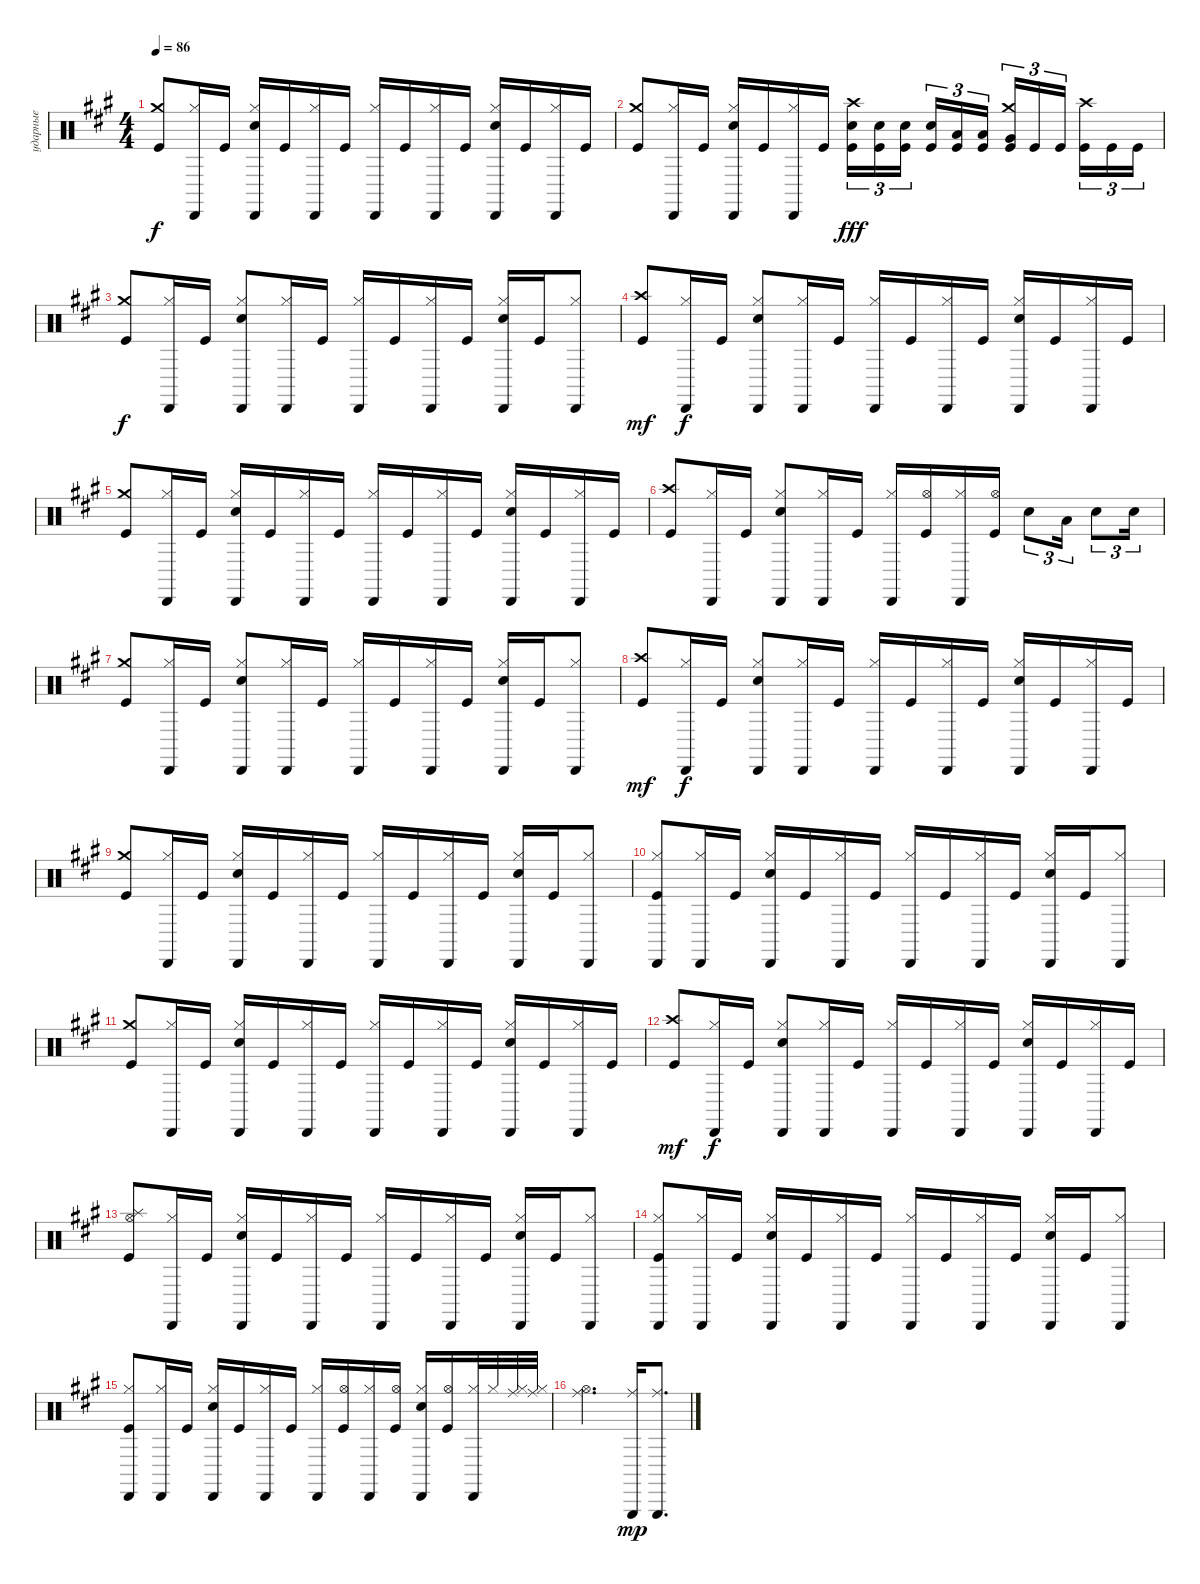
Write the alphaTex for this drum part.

\track ("ударные" "ударные") {instrument percussion}
\staff {score}
\articulation defaults
\ts (4 4)
\tempo 86
\clef neutral
\ks f#minor
("Kick (hit)" "Crash medium (hit)").8{dy f} ("Hi-Hat (closed)" "Cabasa (hit)").16 "Kick (hit)".16 ("Snare (hit) 2" "Hi-Hat (closed)" "Cabasa (hit)").16 "Kick (hit)".16 ("Hi-Hat (closed)" "Cabasa (hit)").16 "Kick (hit)".16 ("Hi-Hat (closed)" "Cabasa (hit)").16 "Kick (hit)".16 ("Hi-Hat (closed)" "Cabasa (hit)").16 "Kick (hit)".16 ("Hi-Hat (closed)" "Snare (hit) 2" "Cabasa (hit)").16 "Kick (hit)".16 ("Hi-Hat (closed)" "Cabasa (hit)").16 "Kick (hit)".16 |
("Kick (hit)" "Crash medium (hit)").8 ("Hi-Hat (closed)" "Cabasa (hit)").16 "Kick (hit)".16 ("Snare (hit) 2" "Hi-Hat (closed)" "Cabasa (hit)").16 "Kick (hit)".16 ("Hi-Hat (closed)" "Cabasa (hit)").16 "Kick (hit)".16 ("Snare (hit) 2" "Kick (hit)" "Crash high (hit)").16{tu (3 2) dy fff} ("Snare (hit) 2" "Kick (hit)").16{tu (3 2)} ("Snare (hit) 2" "Kick (hit)").16{tu (3 2) beam splitsecondary} ("Snare (hit) 2" "Kick (hit)").16{tu (3 2)} ("Low Tom (hit)" "Kick (hit)").16{tu (3 2)} ("Low Tom (hit)" "Kick (hit)").16{tu (3 2)} ("Very Low Tom (hit)" "Crash medium (hit)" "Kick (hit)").16{tu (3 2)} "Kick (hit)".16{tu (3 2)} "Kick (hit)".16{tu (3 2) beam splitsecondary} ("Kick (hit)" "Crash high (hit)").16{tu (3 2)} "Kick (hit)".16{tu (3 2)} "Kick (hit)".16{tu (3 2)} |
("Kick (hit)" "Crash medium (hit)").8{dy f} ("Hi-Hat (closed)" "Cabasa (hit)").16 "Kick (hit)".16 ("Snare (hit) 2" "Hi-Hat (closed)" "Cabasa (hit)").8 ("Hi-Hat (closed)" "Cabasa (hit)").16 "Kick (hit)".16 ("Hi-Hat (closed)" "Cabasa (hit)").16 "Kick (hit)".16 ("Hi-Hat (closed)" "Cabasa (hit)").16 "Kick (hit)".16 ("Hi-Hat (closed)" "Snare (hit) 2" "Cabasa (hit)").16 "Kick (hit)".16 ("Hi-Hat (closed)" "Cabasa (hit)").8 |
("Kick (hit)" "Crash high (hit)").8{dy mf} ("Hi-Hat (closed)" "Cabasa (hit)").16{dy f} "Kick (hit)".16 ("Snare (hit) 2" "Hi-Hat (closed)" "Cabasa (hit)").8 ("Hi-Hat (closed)" "Cabasa (hit)").16 "Kick (hit)".16 ("Hi-Hat (closed)" "Cabasa (hit)").16 "Kick (hit)".16 ("Hi-Hat (closed)" "Cabasa (hit)").16 "Kick (hit)".16 ("Hi-Hat (closed)" "Snare (hit) 2" "Cabasa (hit)").16 "Kick (hit)".16 ("Hi-Hat (closed)" "Cabasa (hit)").16 "Kick (hit)".16 |
("Kick (hit)" "Crash medium (hit)").8 ("Hi-Hat (closed)" "Cabasa (hit)").16 "Kick (hit)".16 ("Snare (hit) 2" "Hi-Hat (closed)" "Cabasa (hit)").16 "Kick (hit)".16 ("Hi-Hat (closed)" "Cabasa (hit)").16 "Kick (hit)".16 ("Hi-Hat (closed)" "Cabasa (hit)").16 "Kick (hit)".16 ("Hi-Hat (closed)" "Cabasa (hit)").16 "Kick (hit)".16 ("Hi-Hat (closed)" "Snare (hit) 2" "Cabasa (hit)").16 "Kick (hit)".16 ("Hi-Hat (closed)" "Cabasa (hit)").16 "Kick (hit)".16 |
("Kick (hit)" "Crash high (hit)").8 ("Hi-Hat (closed)" "Cabasa (hit)").16 "Kick (hit)".16 ("Snare (hit) 2" "Hi-Hat (closed)" "Cabasa (hit)").8 ("Hi-Hat (closed)" "Cabasa (hit)").16 "Kick (hit)".16 ("Hi-Hat (closed)" "Cabasa (hit)").16 ("Kick (hit)" "Hi-Hat (open)").16 ("Hi-Hat (closed)" "Cabasa (hit)").16 ("Kick (hit)" "Hi-Hat (open)").16 "Snare (hit) 2".8{tu (3 2)} "Low Tom (hit)".16{tu (3 2)} "Snare (hit) 2".8{tu (3 2)} "Snare (hit) 2".16{tu (3 2)} |
("Kick (hit)" "Crash medium (hit)").8 ("Hi-Hat (closed)" "Cabasa (hit)").16 "Kick (hit)".16 ("Snare (hit) 2" "Hi-Hat (closed)" "Cabasa (hit)").8 ("Hi-Hat (closed)" "Cabasa (hit)").16 "Kick (hit)".16 ("Hi-Hat (closed)" "Cabasa (hit)").16 "Kick (hit)".16 ("Hi-Hat (closed)" "Cabasa (hit)").16 "Kick (hit)".16 ("Hi-Hat (closed)" "Snare (hit) 2" "Cabasa (hit)").16 "Kick (hit)".16 ("Hi-Hat (closed)" "Cabasa (hit)").8 |
("Kick (hit)" "Crash high (hit)").8{dy mf} ("Hi-Hat (closed)" "Cabasa (hit)").16{dy f} "Kick (hit)".16 ("Snare (hit) 2" "Hi-Hat (closed)" "Cabasa (hit)").8 ("Hi-Hat (closed)" "Cabasa (hit)").16 "Kick (hit)".16 ("Hi-Hat (closed)" "Cabasa (hit)").16 "Kick (hit)".16 ("Hi-Hat (closed)" "Cabasa (hit)").16 "Kick (hit)".16 ("Hi-Hat (closed)" "Snare (hit) 2" "Cabasa (hit)").16 "Kick (hit)".16 ("Hi-Hat (closed)" "Cabasa (hit)").16 "Kick (hit)".16 |
("Kick (hit)" "Crash medium (hit)").8 ("Hi-Hat (closed)" "Cabasa (hit)").16 "Kick (hit)".16 ("Snare (hit) 2" "Hi-Hat (closed)" "Cabasa (hit)").16 "Kick (hit)".16 ("Hi-Hat (closed)" "Cabasa (hit)").16 "Kick (hit)".16 ("Hi-Hat (closed)" "Cabasa (hit)").16 "Kick (hit)".16 ("Hi-Hat (closed)" "Cabasa (hit)").16 "Kick (hit)".16 ("Hi-Hat (closed)" "Snare (hit) 2" "Cabasa (hit)").16 "Kick (hit)".16 ("Hi-Hat (closed)" "Cabasa (hit)").8 |
("Kick (hit)" "Hi-Hat (closed)" "Cabasa (hit)").8 ("Hi-Hat (closed)" "Cabasa (hit)").16 "Kick (hit)".16 ("Snare (hit) 2" "Hi-Hat (closed)" "Cabasa (hit)").16 "Kick (hit)".16 ("Hi-Hat (closed)" "Cabasa (hit)").16 "Kick (hit)".16 ("Hi-Hat (closed)" "Cabasa (hit)").16 "Kick (hit)".16 ("Hi-Hat (closed)" "Cabasa (hit)").16 "Kick (hit)".16 ("Hi-Hat (closed)" "Snare (hit) 2" "Cabasa (hit)").16 "Kick (hit)".16 ("Hi-Hat (closed)" "Cabasa (hit)").8 |
("Kick (hit)" "Crash medium (hit)").8 ("Hi-Hat (closed)" "Cabasa (hit)").16 "Kick (hit)".16 ("Snare (hit) 2" "Hi-Hat (closed)" "Cabasa (hit)").16 "Kick (hit)".16 ("Hi-Hat (closed)" "Cabasa (hit)").16 "Kick (hit)".16 ("Hi-Hat (closed)" "Cabasa (hit)").16 "Kick (hit)".16 ("Hi-Hat (closed)" "Cabasa (hit)").16 "Kick (hit)".16 ("Hi-Hat (closed)" "Snare (hit) 2" "Cabasa (hit)").16 "Kick (hit)".16 ("Hi-Hat (closed)" "Cabasa (hit)").16 "Kick (hit)".16 |
("Kick (hit)" "Crash high (hit)").8{dy mf} ("Hi-Hat (closed)" "Cabasa (hit)").16{dy f} "Kick (hit)".16 ("Snare (hit) 2" "Hi-Hat (closed)" "Cabasa (hit)").8 ("Hi-Hat (closed)" "Cabasa (hit)").16 "Kick (hit)".16 ("Hi-Hat (closed)" "Cabasa (hit)").16 "Kick (hit)".16 ("Hi-Hat (closed)" "Cabasa (hit)").16 "Kick (hit)".16 ("Hi-Hat (closed)" "Snare (hit) 2" "Cabasa (hit)").16 "Kick (hit)".16 ("Hi-Hat (closed)" "Cabasa (hit)").16 "Kick (hit)".16 |
("Kick (hit)" "Hi-Hat (open)" "Splash (hit)").8 ("Hi-Hat (closed)" "Cabasa (hit)").16 "Kick (hit)".16 ("Snare (hit) 2" "Hi-Hat (closed)" "Cabasa (hit)").16 "Kick (hit)".16 ("Hi-Hat (closed)" "Cabasa (hit)").16 "Kick (hit)".16 ("Hi-Hat (closed)" "Cabasa (hit)").16 "Kick (hit)".16 ("Hi-Hat (closed)" "Cabasa (hit)").16 "Kick (hit)".16 ("Hi-Hat (closed)" "Snare (hit) 2" "Cabasa (hit)").16 "Kick (hit)".16 ("Hi-Hat (closed)" "Cabasa (hit)").8 |
("Kick (hit)" "Hi-Hat (closed)" "Cabasa (hit)").8 ("Hi-Hat (closed)" "Cabasa (hit)").16 "Kick (hit)".16 ("Snare (hit) 2" "Hi-Hat (closed)" "Cabasa (hit)").16 "Kick (hit)".16 ("Hi-Hat (closed)" "Cabasa (hit)").16 "Kick (hit)".16 ("Hi-Hat (closed)" "Cabasa (hit)").16 "Kick (hit)".16 ("Hi-Hat (closed)" "Cabasa (hit)").16 "Kick (hit)".16 ("Hi-Hat (closed)" "Snare (hit) 2" "Cabasa (hit)").16 "Kick (hit)".16 ("Hi-Hat (closed)" "Cabasa (hit)").8 |
("Kick (hit)" "Hi-Hat (closed)" "Cabasa (hit)").8 ("Hi-Hat (closed)" "Cabasa (hit)").16 "Kick (hit)".16 ("Snare (hit) 2" "Hi-Hat (closed)" "Cabasa (hit)").16 "Kick (hit)".16 ("Hi-Hat (closed)" "Cabasa (hit)").16 "Kick (hit)".16 ("Hi-Hat (closed)" "Cabasa (hit)").16 ("Kick (hit)" "Hi-Hat (open)").16 ("Hi-Hat (closed)" "Cabasa (hit)").16 ("Kick (hit)" "Hi-Hat (open)").16 ("Hi-Hat (closed)" "Snare (hit) 2" "Cabasa (hit)").16 ("Kick (hit)" "Hi-Hat (open)").16 ("Hi-Hat (closed)" "Cabasa (hit)").32 "Hi-Hat (closed)".32 ("Hi-Hat (closed)" "Ride (middle)").32 ("Hi-Hat (closed)" "Ride (middle)").32 |
("Hi-Hat (open)" "Ride (middle)").2{d} ("Triangle (hit)" "Ride (middle)").16{dy mp} ("Triangle (hit)" "Ride (middle)").8{d}
